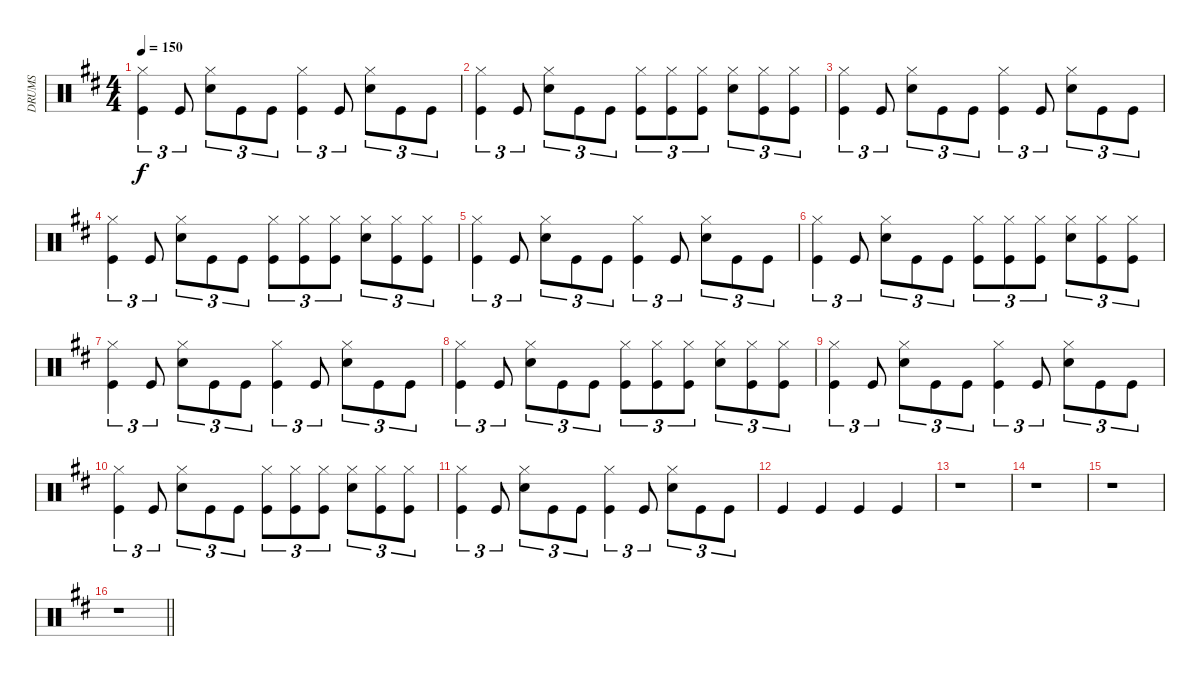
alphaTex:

\track ("DRUMS" "DRUMS") {instrument percussion}
\staff {score}
\articulation defaults
\ts (4 4)
\tempo 150
\clef neutral
\ks d
("Hi-Hat (closed)" "Kick (hit)").4{tu (3 2) dy f} "Kick (hit)".8{tu (3 2)} ("Hi-Hat (closed)" "Snare (hit) 2").8{tu (3 2)} "Kick (hit)".8{tu (3 2)} "Kick (hit)".8{tu (3 2)} ("Hi-Hat (closed)" "Kick (hit)").4{tu (3 2)} "Kick (hit)".8{tu (3 2)} ("Hi-Hat (closed)" "Snare (hit) 2").8{tu (3 2)} "Kick (hit)".8{tu (3 2)} "Kick (hit)".8{tu (3 2)} |
("Hi-Hat (closed)" "Kick (hit)").4{tu (3 2)} "Kick (hit)".8{tu (3 2)} ("Hi-Hat (closed)" "Snare (hit) 2").8{tu (3 2)} "Kick (hit)".8{tu (3 2)} "Kick (hit)".8{tu (3 2)} ("Hi-Hat (closed)" "Kick (hit)").8{tu (3 2)} ("Hi-Hat (closed)" "Kick (hit)").8{tu (3 2)} ("Hi-Hat (closed)" "Kick (hit)").8{tu (3 2)} ("Hi-Hat (closed)" "Snare (hit) 2").8{tu (3 2)} ("Hi-Hat (closed)" "Kick (hit)").8{tu (3 2)} ("Hi-Hat (closed)" "Kick (hit)").8{tu (3 2)} |
("Hi-Hat (closed)" "Kick (hit)").4{tu (3 2)} "Kick (hit)".8{tu (3 2)} ("Hi-Hat (closed)" "Snare (hit) 2").8{tu (3 2)} "Kick (hit)".8{tu (3 2)} "Kick (hit)".8{tu (3 2)} ("Hi-Hat (closed)" "Kick (hit)").4{tu (3 2)} "Kick (hit)".8{tu (3 2)} ("Hi-Hat (closed)" "Snare (hit) 2").8{tu (3 2)} "Kick (hit)".8{tu (3 2)} "Kick (hit)".8{tu (3 2)} |
("Hi-Hat (closed)" "Kick (hit)").4{tu (3 2)} "Kick (hit)".8{tu (3 2)} ("Hi-Hat (closed)" "Snare (hit) 2").8{tu (3 2)} "Kick (hit)".8{tu (3 2)} "Kick (hit)".8{tu (3 2)} ("Hi-Hat (closed)" "Kick (hit)").8{tu (3 2)} ("Hi-Hat (closed)" "Kick (hit)").8{tu (3 2)} ("Hi-Hat (closed)" "Kick (hit)").8{tu (3 2)} ("Hi-Hat (closed)" "Snare (hit) 2").8{tu (3 2)} ("Hi-Hat (closed)" "Kick (hit)").8{tu (3 2)} ("Hi-Hat (closed)" "Kick (hit)").8{tu (3 2)} |
("Hi-Hat (closed)" "Kick (hit)").4{tu (3 2)} "Kick (hit)".8{tu (3 2)} ("Hi-Hat (closed)" "Snare (hit) 2").8{tu (3 2)} "Kick (hit)".8{tu (3 2)} "Kick (hit)".8{tu (3 2)} ("Hi-Hat (closed)" "Kick (hit)").4{tu (3 2)} "Kick (hit)".8{tu (3 2)} ("Hi-Hat (closed)" "Snare (hit) 2").8{tu (3 2)} "Kick (hit)".8{tu (3 2)} "Kick (hit)".8{tu (3 2)} |
("Hi-Hat (closed)" "Kick (hit)").4{tu (3 2)} "Kick (hit)".8{tu (3 2)} ("Hi-Hat (closed)" "Snare (hit) 2").8{tu (3 2)} "Kick (hit)".8{tu (3 2)} "Kick (hit)".8{tu (3 2)} ("Hi-Hat (closed)" "Kick (hit)").8{tu (3 2)} ("Hi-Hat (closed)" "Kick (hit)").8{tu (3 2)} ("Hi-Hat (closed)" "Kick (hit)").8{tu (3 2)} ("Hi-Hat (closed)" "Snare (hit) 2").8{tu (3 2)} ("Hi-Hat (closed)" "Kick (hit)").8{tu (3 2)} ("Hi-Hat (closed)" "Kick (hit)").8{tu (3 2)} |
("Hi-Hat (closed)" "Kick (hit)").4{tu (3 2)} "Kick (hit)".8{tu (3 2)} ("Hi-Hat (closed)" "Snare (hit) 2").8{tu (3 2)} "Kick (hit)".8{tu (3 2)} "Kick (hit)".8{tu (3 2)} ("Hi-Hat (closed)" "Kick (hit)").4{tu (3 2)} "Kick (hit)".8{tu (3 2)} ("Hi-Hat (closed)" "Snare (hit) 2").8{tu (3 2)} "Kick (hit)".8{tu (3 2)} "Kick (hit)".8{tu (3 2)} |
("Hi-Hat (closed)" "Kick (hit)").4{tu (3 2)} "Kick (hit)".8{tu (3 2)} ("Hi-Hat (closed)" "Snare (hit) 2").8{tu (3 2)} "Kick (hit)".8{tu (3 2)} "Kick (hit)".8{tu (3 2)} ("Hi-Hat (closed)" "Kick (hit)").8{tu (3 2)} ("Hi-Hat (closed)" "Kick (hit)").8{tu (3 2)} ("Hi-Hat (closed)" "Kick (hit)").8{tu (3 2)} ("Hi-Hat (closed)" "Snare (hit) 2").8{tu (3 2)} ("Hi-Hat (closed)" "Kick (hit)").8{tu (3 2)} ("Hi-Hat (closed)" "Kick (hit)").8{tu (3 2)} |
("Hi-Hat (closed)" "Kick (hit)").4{tu (3 2)} "Kick (hit)".8{tu (3 2)} ("Hi-Hat (closed)" "Snare (hit) 2").8{tu (3 2)} "Kick (hit)".8{tu (3 2)} "Kick (hit)".8{tu (3 2)} ("Hi-Hat (closed)" "Kick (hit)").4{tu (3 2)} "Kick (hit)".8{tu (3 2)} ("Hi-Hat (closed)" "Snare (hit) 2").8{tu (3 2)} "Kick (hit)".8{tu (3 2)} "Kick (hit)".8{tu (3 2)} |
("Hi-Hat (closed)" "Kick (hit)").4{tu (3 2)} "Kick (hit)".8{tu (3 2)} ("Hi-Hat (closed)" "Snare (hit) 2").8{tu (3 2)} "Kick (hit)".8{tu (3 2)} "Kick (hit)".8{tu (3 2)} ("Hi-Hat (closed)" "Kick (hit)").8{tu (3 2)} ("Hi-Hat (closed)" "Kick (hit)").8{tu (3 2)} ("Hi-Hat (closed)" "Kick (hit)").8{tu (3 2)} ("Hi-Hat (closed)" "Snare (hit) 2").8{tu (3 2)} ("Hi-Hat (closed)" "Kick (hit)").8{tu (3 2)} ("Hi-Hat (closed)" "Kick (hit)").8{tu (3 2)} |
("Hi-Hat (closed)" "Kick (hit)").4{tu (3 2)} "Kick (hit)".8{tu (3 2)} ("Hi-Hat (closed)" "Snare (hit) 2").8{tu (3 2)} "Kick (hit)".8{tu (3 2)} "Kick (hit)".8{tu (3 2)} ("Hi-Hat (closed)" "Kick (hit)").4{tu (3 2)} "Kick (hit)".8{tu (3 2)} ("Hi-Hat (closed)" "Snare (hit) 2").8{tu (3 2)} "Kick (hit)".8{tu (3 2)} "Kick (hit)".8{tu (3 2)} |
"Kick (hit)".4 "Kick (hit)".4 "Kick (hit)".4 "Kick (hit)".4 |
r.1 |
r.1 |
r.1 |
\barLineRight lightlight
r.1
